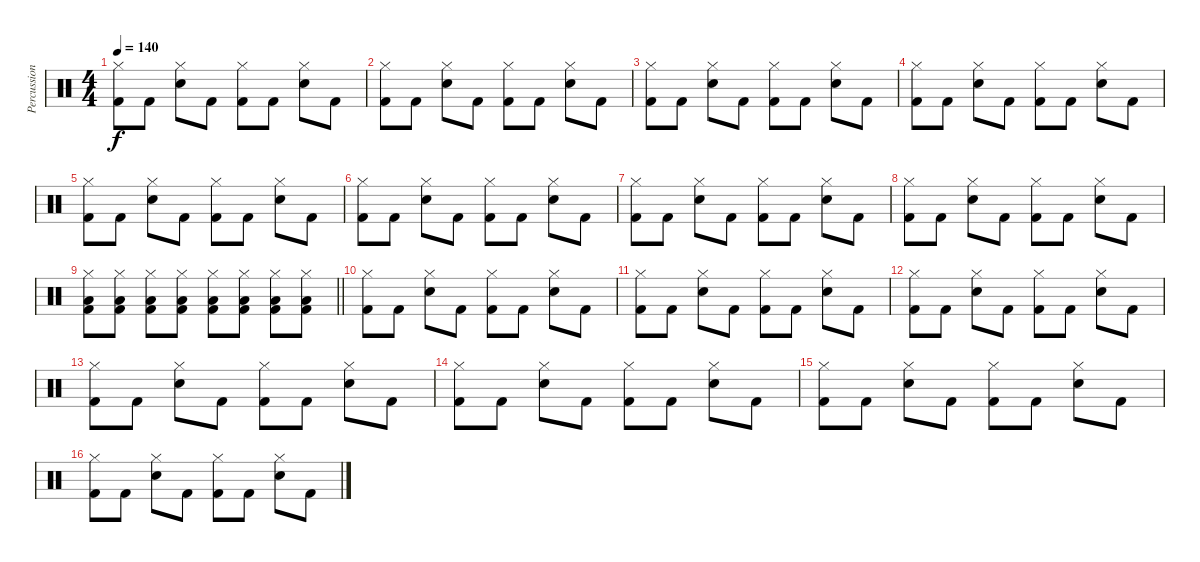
\track ("Percussion" "Percussion") {instrument percussion}
\staff {score}
\articulation defaults
\ts (4 4)
\tempo 140
\clef neutral
\ks c
("Hi-Hat (closed)" "Kick (hit) 2").8{dy f} "Kick (hit) 2".8 ("Electric Snare (hit)" "Hi-Hat (closed)").8 "Kick (hit) 2".8 ("Hi-Hat (closed)" "Kick (hit) 2").8 "Kick (hit) 2".8 ("Electric Snare (hit)" "Hi-Hat (closed)").8 "Kick (hit) 2".8 |
("Hi-Hat (closed)" "Kick (hit) 2").8 "Kick (hit) 2".8 ("Electric Snare (hit)" "Hi-Hat (closed)").8 "Kick (hit) 2".8 ("Hi-Hat (closed)" "Kick (hit) 2").8 "Kick (hit) 2".8 ("Electric Snare (hit)" "Hi-Hat (closed)").8 "Kick (hit) 2".8 |
("Hi-Hat (closed)" "Kick (hit) 2").8 "Kick (hit) 2".8 ("Electric Snare (hit)" "Hi-Hat (closed)").8 "Kick (hit) 2".8 ("Hi-Hat (closed)" "Kick (hit) 2").8 "Kick (hit) 2".8 ("Electric Snare (hit)" "Hi-Hat (closed)").8 "Kick (hit) 2".8 |
("Hi-Hat (closed)" "Kick (hit) 2").8 "Kick (hit) 2".8 ("Electric Snare (hit)" "Hi-Hat (closed)").8 "Kick (hit) 2".8 ("Hi-Hat (closed)" "Kick (hit) 2").8 "Kick (hit) 2".8 ("Electric Snare (hit)" "Hi-Hat (closed)").8 "Kick (hit) 2".8 |
("Hi-Hat (closed)" "Kick (hit) 2").8 "Kick (hit) 2".8 ("Electric Snare (hit)" "Hi-Hat (closed)").8 "Kick (hit) 2".8 ("Hi-Hat (closed)" "Kick (hit) 2").8 "Kick (hit) 2".8 ("Electric Snare (hit)" "Hi-Hat (closed)").8 "Kick (hit) 2".8 |
("Hi-Hat (closed)" "Kick (hit) 2").8 "Kick (hit) 2".8 ("Electric Snare (hit)" "Hi-Hat (closed)").8 "Kick (hit) 2".8 ("Hi-Hat (closed)" "Kick (hit) 2").8 "Kick (hit) 2".8 ("Electric Snare (hit)" "Hi-Hat (closed)").8 "Kick (hit) 2".8 |
("Hi-Hat (closed)" "Kick (hit) 2").8 "Kick (hit) 2".8 ("Electric Snare (hit)" "Hi-Hat (closed)").8 "Kick (hit) 2".8 ("Hi-Hat (closed)" "Kick (hit) 2").8 "Kick (hit) 2".8 ("Electric Snare (hit)" "Hi-Hat (closed)").8 "Kick (hit) 2".8 |
("Hi-Hat (closed)" "Kick (hit) 2").8 "Kick (hit) 2".8 ("Electric Snare (hit)" "Hi-Hat (closed)").8 "Kick (hit) 2".8 ("Hi-Hat (closed)" "Kick (hit) 2").8 "Kick (hit) 2".8 ("Electric Snare (hit)" "Hi-Hat (closed)").8 "Kick (hit) 2".8 |
\barLineRight lightlight
("Hi-Hat (closed)" "Kick (hit) 2" "Low Floor Tom (hit)").8 ("Hi-Hat (closed)" "Kick (hit) 2" "Low Floor Tom (hit)").8 ("Hi-Hat (closed)" "Kick (hit) 2" "Low Floor Tom (hit)").8 ("Hi-Hat (closed)" "Kick (hit) 2" "Low Floor Tom (hit)").8 ("Hi-Hat (closed)" "Kick (hit) 2" "Low Floor Tom (hit)").8 ("Hi-Hat (closed)" "Kick (hit) 2" "Low Floor Tom (hit)").8 ("Hi-Hat (closed)" "Kick (hit) 2" "Low Floor Tom (hit)").8 ("Hi-Hat (closed)" "Kick (hit) 2" "Low Floor Tom (hit)").8 |
("Hi-Hat (closed)" "Kick (hit) 2").8 "Kick (hit) 2".8 ("Electric Snare (hit)" "Hi-Hat (closed)").8 "Kick (hit) 2".8 ("Hi-Hat (closed)" "Kick (hit) 2").8 "Kick (hit) 2".8 ("Electric Snare (hit)" "Hi-Hat (closed)").8 "Kick (hit) 2".8 |
("Hi-Hat (closed)" "Kick (hit) 2").8 "Kick (hit) 2".8 ("Electric Snare (hit)" "Hi-Hat (closed)").8 "Kick (hit) 2".8 ("Hi-Hat (closed)" "Kick (hit) 2").8 "Kick (hit) 2".8 ("Electric Snare (hit)" "Hi-Hat (closed)").8 "Kick (hit) 2".8 |
("Hi-Hat (closed)" "Kick (hit) 2").8 "Kick (hit) 2".8 ("Electric Snare (hit)" "Hi-Hat (closed)").8 "Kick (hit) 2".8 ("Hi-Hat (closed)" "Kick (hit) 2").8 "Kick (hit) 2".8 ("Electric Snare (hit)" "Hi-Hat (closed)").8 "Kick (hit) 2".8 |
("Hi-Hat (closed)" "Kick (hit) 2").8 "Kick (hit) 2".8 ("Electric Snare (hit)" "Hi-Hat (closed)").8 "Kick (hit) 2".8 ("Hi-Hat (closed)" "Kick (hit) 2").8 "Kick (hit) 2".8 ("Electric Snare (hit)" "Hi-Hat (closed)").8 "Kick (hit) 2".8 |
("Hi-Hat (closed)" "Kick (hit) 2").8 "Kick (hit) 2".8 ("Electric Snare (hit)" "Hi-Hat (closed)").8 "Kick (hit) 2".8 ("Hi-Hat (closed)" "Kick (hit) 2").8 "Kick (hit) 2".8 ("Electric Snare (hit)" "Hi-Hat (closed)").8 "Kick (hit) 2".8 |
("Hi-Hat (closed)" "Kick (hit) 2").8 "Kick (hit) 2".8 ("Electric Snare (hit)" "Hi-Hat (closed)").8 "Kick (hit) 2".8 ("Hi-Hat (closed)" "Kick (hit) 2").8 "Kick (hit) 2".8 ("Electric Snare (hit)" "Hi-Hat (closed)").8 "Kick (hit) 2".8 |
("Hi-Hat (closed)" "Kick (hit) 2").8 "Kick (hit) 2".8 ("Electric Snare (hit)" "Hi-Hat (closed)").8 "Kick (hit) 2".8 ("Hi-Hat (closed)" "Kick (hit) 2").8 "Kick (hit) 2".8 ("Electric Snare (hit)" "Hi-Hat (closed)").8 "Kick (hit) 2".8
